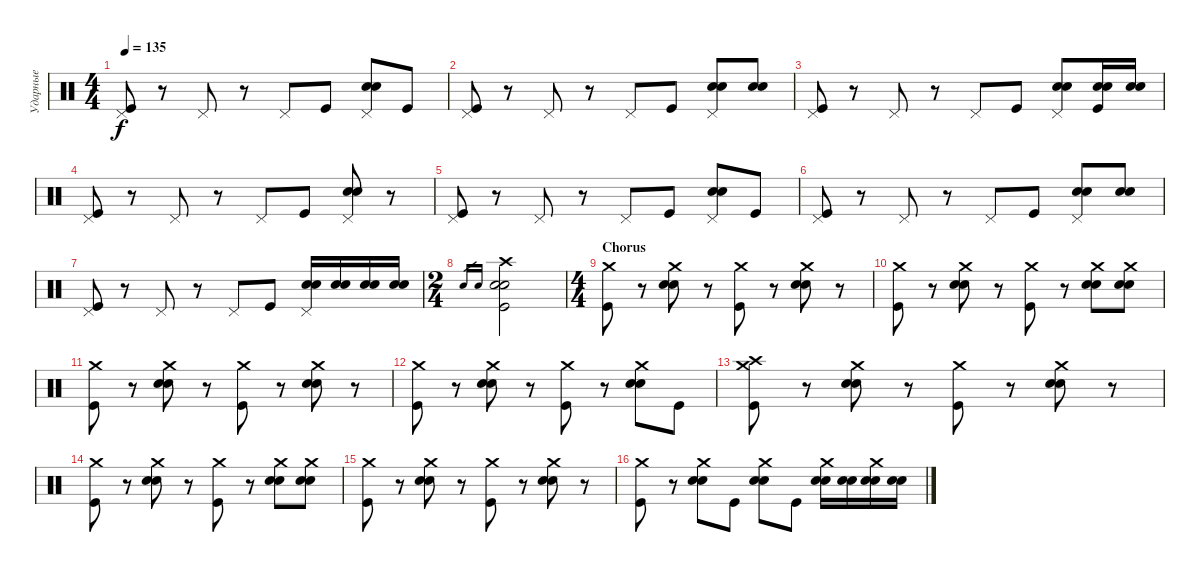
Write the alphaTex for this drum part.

\track ("Ударные" "Ударные") {instrument percussion}
\staff {score}
\articulation defaults
\ts (4 4)
\tempo 135
\clef neutral
\ks c
("Pedal Hi-Hat (hit)" "Kick (hit)").8{dy f} r.8 "Pedal Hi-Hat (hit)".8 r.8 "Pedal Hi-Hat (hit)".8 "Kick (hit)".8 ("Pedal Hi-Hat (hit)" "Electric Snare (hit)" "Electric Snare (hit)").8 "Kick (hit)".8 |
("Pedal Hi-Hat (hit)" "Kick (hit)").8 r.8 "Pedal Hi-Hat (hit)".8 r.8 "Pedal Hi-Hat (hit)".8 "Kick (hit)".8 ("Pedal Hi-Hat (hit)" "Electric Snare (hit)" "Electric Snare (hit)").8 ("Electric Snare (hit)" "Electric Snare (hit)").8 |
("Pedal Hi-Hat (hit)" "Kick (hit)").8 r.8 "Pedal Hi-Hat (hit)".8 r.8 "Pedal Hi-Hat (hit)".8 "Kick (hit)".8 ("Pedal Hi-Hat (hit)" "Electric Snare (hit)" "Electric Snare (hit)").8 ("Electric Snare (hit)" "Electric Snare (hit)" "Kick (hit)").16 ("Electric Snare (hit)" "Electric Snare (hit)").16 |
("Pedal Hi-Hat (hit)" "Kick (hit)").8 r.8 "Pedal Hi-Hat (hit)".8 r.8 "Pedal Hi-Hat (hit)".8 "Kick (hit)".8 ("Pedal Hi-Hat (hit)" "Electric Snare (hit)" "Electric Snare (hit)").8 r.8 |
("Pedal Hi-Hat (hit)" "Kick (hit)").8 r.8 "Pedal Hi-Hat (hit)".8 r.8 "Pedal Hi-Hat (hit)".8 "Kick (hit)".8 ("Pedal Hi-Hat (hit)" "Electric Snare (hit)" "Electric Snare (hit)").8 "Kick (hit)".8 |
("Pedal Hi-Hat (hit)" "Kick (hit)").8 r.8 "Pedal Hi-Hat (hit)".8 r.8 "Pedal Hi-Hat (hit)".8 "Kick (hit)".8 ("Pedal Hi-Hat (hit)" "Electric Snare (hit)" "Electric Snare (hit)").8 ("Electric Snare (hit)" "Electric Snare (hit)").8 |
("Pedal Hi-Hat (hit)" "Kick (hit)").8 r.8 "Pedal Hi-Hat (hit)".8 r.8 "Pedal Hi-Hat (hit)".8 "Kick (hit)".8 ("Pedal Hi-Hat (hit)" "Electric Snare (hit)" "Electric Snare (hit)").16 ("Electric Snare (hit)" "Electric Snare (hit)").16 ("Electric Snare (hit)" "Electric Snare (hit)").16 ("Electric Snare (hit)" "Electric Snare (hit)").16 |
\ts (2 4)
"Electric Snare (hit)".16{gr} "Electric Snare (hit)".16{gr} ("Crash high (hit)" "Electric Snare (hit)" "Electric Snare (hit)" "Kick (hit)").2 |
\ts (4 4)
\section ("" "Chorus")
("Crash medium (hit)" "Kick (hit)").8 r.8 ("Crash medium (hit)" "Electric Snare (hit)" "Electric Snare (hit)").8 r.8 ("Crash medium (hit)" "Kick (hit)").8 r.8 ("Crash medium (hit)" "Electric Snare (hit)" "Electric Snare (hit)").8 r.8 |
("Crash medium (hit)" "Kick (hit)").8 r.8 ("Crash medium (hit)" "Electric Snare (hit)" "Electric Snare (hit)").8 r.8 ("Crash medium (hit)" "Kick (hit)").8 r.8 ("Crash medium (hit)" "Electric Snare (hit)" "Electric Snare (hit)").8 ("Crash medium (hit)" "Electric Snare (hit)" "Electric Snare (hit)").8 |
("Crash medium (hit)" "Kick (hit)").8 r.8 ("Crash medium (hit)" "Electric Snare (hit)" "Electric Snare (hit)").8 r.8 ("Crash medium (hit)" "Kick (hit)").8 r.8 ("Crash medium (hit)" "Electric Snare (hit)" "Electric Snare (hit)").8 r.8 |
("Crash medium (hit)" "Kick (hit)").8 r.8 ("Crash medium (hit)" "Electric Snare (hit)" "Electric Snare (hit)").8 r.8 ("Crash medium (hit)" "Kick (hit)").8 r.8 ("Crash medium (hit)" "Electric Snare (hit)" "Electric Snare (hit)").8 "Kick (hit)".8 |
("Crash medium (hit)" "Crash high (hit)" "Kick (hit)").8 r.8 ("Crash medium (hit)" "Electric Snare (hit)" "Electric Snare (hit)").8 r.8 ("Crash medium (hit)" "Kick (hit)").8 r.8 ("Crash medium (hit)" "Electric Snare (hit)" "Electric Snare (hit)").8 r.8 |
("Crash medium (hit)" "Kick (hit)").8 r.8 ("Crash medium (hit)" "Electric Snare (hit)" "Electric Snare (hit)").8 r.8 ("Crash medium (hit)" "Kick (hit)").8 r.8 ("Crash medium (hit)" "Electric Snare (hit)" "Electric Snare (hit)").8 ("Crash medium (hit)" "Electric Snare (hit)" "Electric Snare (hit)").8 |
("Crash medium (hit)" "Kick (hit)").8 r.8 ("Crash medium (hit)" "Electric Snare (hit)" "Electric Snare (hit)").8 r.8 ("Crash medium (hit)" "Kick (hit)").8 r.8 ("Crash medium (hit)" "Electric Snare (hit)" "Electric Snare (hit)").8 r.8 |
("Crash medium (hit)" "Kick (hit)").8 r.8 ("Crash medium (hit)" "Electric Snare (hit)" "Electric Snare (hit)").8 "Kick (hit)".8 ("Crash medium (hit)" "Electric Snare (hit)" "Electric Snare (hit)").8 "Kick (hit)".8 ("Crash medium (hit)" "Electric Snare (hit)" "Electric Snare (hit)").16 ("Electric Snare (hit)" "Electric Snare (hit)").16 ("Crash medium (hit)" "Electric Snare (hit)" "Electric Snare (hit)").16 ("Electric Snare (hit)" "Electric Snare (hit)").16
